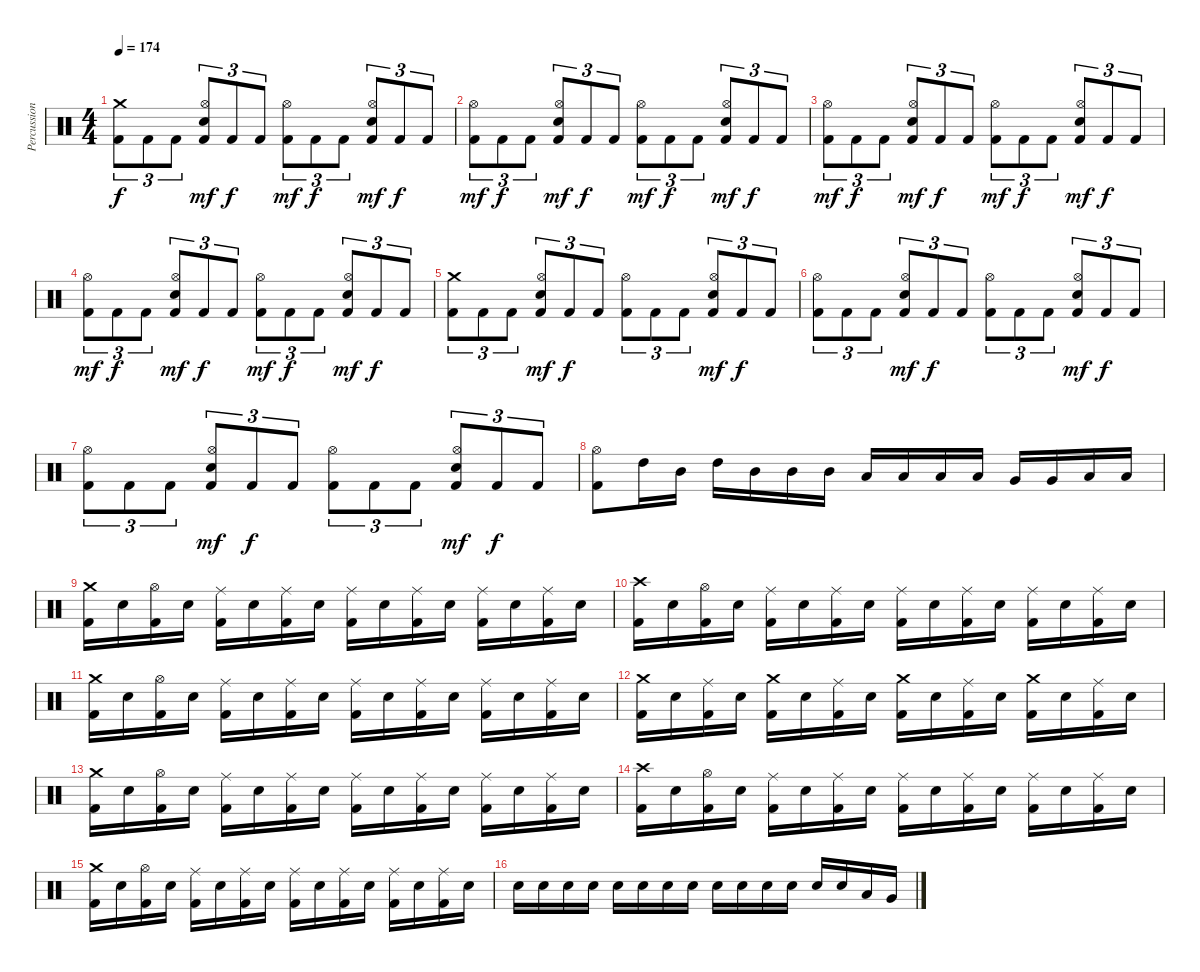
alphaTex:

\track ("Percussion" "Percussion") {instrument percussion}
\staff {score}
\articulation defaults
\ts (4 4)
\tempo 174
\clef neutral
\ks c
("Crash medium (hit)" "Kick (hit) 2").8{tu (3 2) dy f} "Kick (hit) 2".8{tu (3 2)} "Kick (hit) 2".8{tu (3 2)} ("Hi-Hat (open)" "Electric Snare (hit)" "Kick (hit) 2").8{tu (3 2) dy mf} "Kick (hit) 2".8{tu (3 2) dy f} "Kick (hit) 2".8{tu (3 2)} ("Hi-Hat (open)" "Kick (hit) 2").8{tu (3 2) dy mf} "Kick (hit) 2".8{tu (3 2) dy f} "Kick (hit) 2".8{tu (3 2)} ("Hi-Hat (open)" "Electric Snare (hit)" "Kick (hit) 2").8{tu (3 2) dy mf} "Kick (hit) 2".8{tu (3 2) dy f} "Kick (hit) 2".8{tu (3 2)} |
("Hi-Hat (open)" "Kick (hit) 2").8{tu (3 2) dy mf} "Kick (hit) 2".8{tu (3 2) dy f} "Kick (hit) 2".8{tu (3 2)} ("Hi-Hat (open)" "Electric Snare (hit)" "Kick (hit) 2").8{tu (3 2) dy mf} "Kick (hit) 2".8{tu (3 2) dy f} "Kick (hit) 2".8{tu (3 2)} ("Hi-Hat (open)" "Kick (hit) 2").8{tu (3 2) dy mf} "Kick (hit) 2".8{tu (3 2) dy f} "Kick (hit) 2".8{tu (3 2)} ("Hi-Hat (open)" "Electric Snare (hit)" "Kick (hit) 2").8{tu (3 2) dy mf} "Kick (hit) 2".8{tu (3 2) dy f} "Kick (hit) 2".8{tu (3 2)} |
("Hi-Hat (open)" "Kick (hit) 2").8{tu (3 2) dy mf} "Kick (hit) 2".8{tu (3 2) dy f} "Kick (hit) 2".8{tu (3 2)} ("Hi-Hat (open)" "Electric Snare (hit)" "Kick (hit) 2").8{tu (3 2) dy mf} "Kick (hit) 2".8{tu (3 2) dy f} "Kick (hit) 2".8{tu (3 2)} ("Hi-Hat (open)" "Kick (hit) 2").8{tu (3 2) dy mf} "Kick (hit) 2".8{tu (3 2) dy f} "Kick (hit) 2".8{tu (3 2)} ("Hi-Hat (open)" "Electric Snare (hit)" "Kick (hit) 2").8{tu (3 2) dy mf} "Kick (hit) 2".8{tu (3 2) dy f} "Kick (hit) 2".8{tu (3 2)} |
("Hi-Hat (open)" "Kick (hit) 2").8{tu (3 2) dy mf} "Kick (hit) 2".8{tu (3 2) dy f} "Kick (hit) 2".8{tu (3 2)} ("Hi-Hat (open)" "Electric Snare (hit)" "Kick (hit) 2").8{tu (3 2) dy mf} "Kick (hit) 2".8{tu (3 2) dy f} "Kick (hit) 2".8{tu (3 2)} ("Hi-Hat (open)" "Kick (hit) 2").8{tu (3 2) dy mf} "Kick (hit) 2".8{tu (3 2) dy f} "Kick (hit) 2".8{tu (3 2)} ("Hi-Hat (open)" "Electric Snare (hit)" "Kick (hit) 2").8{tu (3 2) dy mf} "Kick (hit) 2".8{tu (3 2) dy f} "Kick (hit) 2".8{tu (3 2)} |
("Crash medium (hit)" "Kick (hit) 2").8{tu (3 2)} "Kick (hit) 2".8{tu (3 2)} "Kick (hit) 2".8{tu (3 2)} ("Hi-Hat (open)" "Electric Snare (hit)" "Kick (hit) 2").8{tu (3 2) dy mf} "Kick (hit) 2".8{tu (3 2) dy f} "Kick (hit) 2".8{tu (3 2)} ("Hi-Hat (open)" "Kick (hit) 2").8{tu (3 2)} "Kick (hit) 2".8{tu (3 2)} "Kick (hit) 2".8{tu (3 2)} ("Hi-Hat (open)" "Electric Snare (hit)" "Kick (hit) 2").8{tu (3 2) dy mf} "Kick (hit) 2".8{tu (3 2) dy f} "Kick (hit) 2".8{tu (3 2)} |
("Hi-Hat (open)" "Kick (hit) 2").8{tu (3 2)} "Kick (hit) 2".8{tu (3 2)} "Kick (hit) 2".8{tu (3 2)} ("Hi-Hat (open)" "Electric Snare (hit)" "Kick (hit) 2").8{tu (3 2) dy mf} "Kick (hit) 2".8{tu (3 2) dy f} "Kick (hit) 2".8{tu (3 2)} ("Hi-Hat (open)" "Kick (hit) 2").8{tu (3 2)} "Kick (hit) 2".8{tu (3 2)} "Kick (hit) 2".8{tu (3 2)} ("Hi-Hat (open)" "Electric Snare (hit)" "Kick (hit) 2").8{tu (3 2) dy mf} "Kick (hit) 2".8{tu (3 2) dy f} "Kick (hit) 2".8{tu (3 2)} |
("Hi-Hat (open)" "Kick (hit) 2").8{tu (3 2)} "Kick (hit) 2".8{tu (3 2)} "Kick (hit) 2".8{tu (3 2)} ("Hi-Hat (open)" "Electric Snare (hit)" "Kick (hit) 2").8{tu (3 2) dy mf} "Kick (hit) 2".8{tu (3 2) dy f} "Kick (hit) 2".8{tu (3 2)} ("Hi-Hat (open)" "Kick (hit) 2").8{tu (3 2)} "Kick (hit) 2".8{tu (3 2)} "Kick (hit) 2".8{tu (3 2)} ("Hi-Hat (open)" "Electric Snare (hit)" "Kick (hit) 2").8{tu (3 2) dy mf} "Kick (hit) 2".8{tu (3 2) dy f} "Kick (hit) 2".8{tu (3 2)} |
("Hi-Hat (open)" "Kick (hit) 2").8 "High Tom (hit)".16 "Mid Tom (hit)".16 "High Tom (hit)".16 "Mid Tom (hit)".16 "Mid Tom (hit)".16 "Mid Tom (hit)".16 "Low Tom (hit)".16 "Low Tom (hit)".16 "Low Tom (hit)".16 "Low Tom (hit)".16 "Very Low Tom (hit)".16 "Very Low Tom (hit)".16 "Low Floor Tom (hit)".16 "Low Floor Tom (hit)".16 |
("Crash medium (hit)" "Kick (hit) 2").16 "Electric Snare (hit)".16 ("Hi-Hat (open)" "Kick (hit) 2").16 "Electric Snare (hit)".16 ("Ride (middle)" "Kick (hit) 2").16 "Electric Snare (hit)".16 ("Ride (middle)" "Kick (hit) 2").16 "Electric Snare (hit)".16 ("Ride (middle)" "Kick (hit) 2").16 "Electric Snare (hit)".16 ("Ride (middle)" "Kick (hit) 2").16 "Electric Snare (hit)".16 ("Ride (middle)" "Kick (hit) 2").16 "Electric Snare (hit)".16 ("Ride (middle)" "Kick (hit) 2").16 "Electric Snare (hit)".16 |
("Crash high (hit)" "Kick (hit) 2").16 "Electric Snare (hit)".16 ("Hi-Hat (open)" "Kick (hit) 2").16 "Electric Snare (hit)".16 ("Ride (middle)" "Kick (hit) 2").16 "Electric Snare (hit)".16 ("Ride (middle)" "Kick (hit) 2").16 "Electric Snare (hit)".16 ("Ride (middle)" "Kick (hit) 2").16 "Electric Snare (hit)".16 ("Ride (middle)" "Kick (hit) 2").16 "Electric Snare (hit)".16 ("Ride (middle)" "Kick (hit) 2").16 "Electric Snare (hit)".16 ("Ride (middle)" "Kick (hit) 2").16 "Electric Snare (hit)".16 |
("Crash medium (hit)" "Kick (hit) 2").16 "Electric Snare (hit)".16 ("Hi-Hat (open)" "Kick (hit) 2").16 "Electric Snare (hit)".16 ("Ride (middle)" "Kick (hit) 2").16 "Electric Snare (hit)".16 ("Ride (middle)" "Kick (hit) 2").16 "Electric Snare (hit)".16 ("Ride (middle)" "Kick (hit) 2").16 "Electric Snare (hit)".16 ("Ride (middle)" "Kick (hit) 2").16 "Electric Snare (hit)".16 ("Ride (middle)" "Kick (hit) 2").16 "Electric Snare (hit)".16 ("Ride (middle)" "Kick (hit) 2").16 "Electric Snare (hit)".16 |
("Crash medium (hit)" "Kick (hit) 2").16 "Electric Snare (hit)".16 ("Ride (middle)" "Kick (hit) 2").16 "Electric Snare (hit)".16 ("Crash medium (hit)" "Kick (hit) 2").16 "Electric Snare (hit)".16 ("Ride (middle)" "Kick (hit) 2").16 "Electric Snare (hit)".16 ("Crash medium (hit)" "Kick (hit) 2").16 "Electric Snare (hit)".16 ("Ride (middle)" "Kick (hit) 2").16 "Electric Snare (hit)".16 ("Crash medium (hit)" "Kick (hit) 2").16 "Electric Snare (hit)".16 ("Ride (middle)" "Kick (hit) 2").16 "Electric Snare (hit)".16 |
("Crash medium (hit)" "Kick (hit) 2").16 "Electric Snare (hit)".16 ("Hi-Hat (open)" "Kick (hit) 2").16 "Electric Snare (hit)".16 ("Ride (middle)" "Kick (hit) 2").16 "Electric Snare (hit)".16 ("Ride (middle)" "Kick (hit) 2").16 "Electric Snare (hit)".16 ("Ride (middle)" "Kick (hit) 2").16 "Electric Snare (hit)".16 ("Ride (middle)" "Kick (hit) 2").16 "Electric Snare (hit)".16 ("Ride (middle)" "Kick (hit) 2").16 "Electric Snare (hit)".16 ("Ride (middle)" "Kick (hit) 2").16 "Electric Snare (hit)".16 |
("Crash high (hit)" "Kick (hit) 2").16 "Electric Snare (hit)".16 ("Hi-Hat (open)" "Kick (hit) 2").16 "Electric Snare (hit)".16 ("Ride (middle)" "Kick (hit) 2").16 "Electric Snare (hit)".16 ("Ride (middle)" "Kick (hit) 2").16 "Electric Snare (hit)".16 ("Ride (middle)" "Kick (hit) 2").16 "Electric Snare (hit)".16 ("Ride (middle)" "Kick (hit) 2").16 "Electric Snare (hit)".16 ("Ride (middle)" "Kick (hit) 2").16 "Electric Snare (hit)".16 ("Ride (middle)" "Kick (hit) 2").16 "Electric Snare (hit)".16 |
("Crash medium (hit)" "Kick (hit) 2").16 "Electric Snare (hit)".16 ("Hi-Hat (open)" "Kick (hit) 2").16 "Electric Snare (hit)".16 ("Ride (middle)" "Kick (hit) 2").16 "Electric Snare (hit)".16 ("Ride (middle)" "Kick (hit) 2").16 "Electric Snare (hit)".16 ("Ride (middle)" "Kick (hit) 2").16 "Electric Snare (hit)".16 ("Ride (middle)" "Kick (hit) 2").16 "Electric Snare (hit)".16 ("Ride (middle)" "Kick (hit) 2").16 "Electric Snare (hit)".16 ("Ride (middle)" "Kick (hit) 2").16 "Electric Snare (hit)".16 |
"Electric Snare (hit)".16 "Electric Snare (hit)".16 "Electric Snare (hit)".16 "Electric Snare (hit)".16 "Electric Snare (hit)".16 "Electric Snare (hit)".16 "Electric Snare (hit)".16 "Electric Snare (hit)".16 "Electric Snare (hit)".16 "Electric Snare (hit)".16 "Electric Snare (hit)".16 "Electric Snare (hit)".16 "Electric Snare (hit)".16 "Electric Snare (hit)".16 "Low Tom (hit)".16 "Very Low Tom (hit)".16
